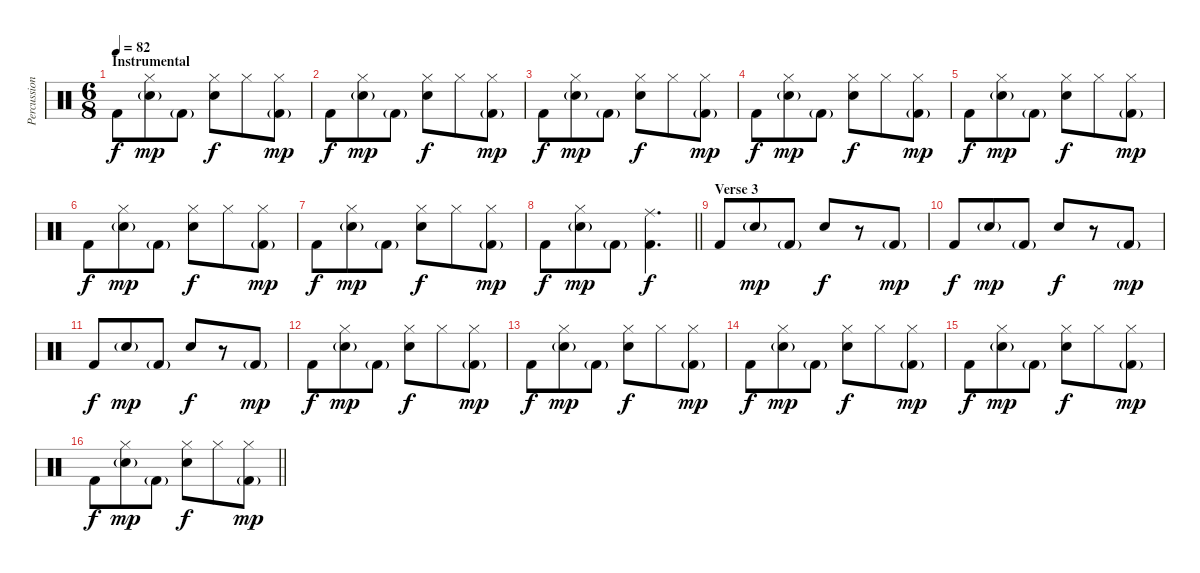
\track ("Percussion" "Percussion") {instrument percussion}
\staff {score}
\articulation defaults
\ts (6 8)
\section ("" "Instrumental")
\tempo 82
\clef neutral
\ks c "Kick (hit) 2".8{dy f}
("Hi-Hat (closed)" "Snare (hit) 2"{g}).8{dy mp} "Kick (hit) 2"{g}.8 ("Hi-Hat (closed)" "Snare (hit) 2").8{dy f} "Hi-Hat (closed)".8 ("Hi-Hat (closed)" "Kick (hit) 2"{g}).8{dy mp} |
"Kick (hit) 2".8{dy f} ("Hi-Hat (closed)" "Snare (hit) 2"{g}).8{dy mp} "Kick (hit) 2"{g}.8 ("Hi-Hat (closed)" "Snare (hit) 2").8{dy f} "Hi-Hat (closed)".8 ("Hi-Hat (closed)" "Kick (hit) 2"{g}).8{dy mp} |
"Kick (hit) 2".8{dy f} ("Hi-Hat (closed)" "Snare (hit) 2"{g}).8{dy mp} "Kick (hit) 2"{g}.8 ("Hi-Hat (closed)" "Snare (hit) 2").8{dy f} "Hi-Hat (closed)".8 ("Hi-Hat (closed)" "Kick (hit) 2"{g}).8{dy mp} |
"Kick (hit) 2".8{dy f} ("Hi-Hat (closed)" "Snare (hit) 2"{g}).8{dy mp} "Kick (hit) 2"{g}.8 ("Hi-Hat (closed)" "Snare (hit) 2").8{dy f} "Hi-Hat (closed)".8 ("Hi-Hat (closed)" "Kick (hit) 2"{g}).8{dy mp} |
"Kick (hit) 2".8{dy f} ("Hi-Hat (closed)" "Snare (hit) 2"{g}).8{dy mp} "Kick (hit) 2"{g}.8 ("Hi-Hat (closed)" "Snare (hit) 2").8{dy f} "Hi-Hat (closed)".8 ("Hi-Hat (closed)" "Kick (hit) 2"{g}).8{dy mp} |
"Kick (hit) 2".8{dy f} ("Hi-Hat (closed)" "Snare (hit) 2"{g}).8{dy mp} "Kick (hit) 2"{g}.8 ("Hi-Hat (closed)" "Snare (hit) 2").8{dy f} "Hi-Hat (closed)".8 ("Hi-Hat (closed)" "Kick (hit) 2"{g}).8{dy mp} |
"Kick (hit) 2".8{dy f} ("Hi-Hat (closed)" "Snare (hit) 2"{g}).8{dy mp} "Kick (hit) 2"{g}.8 ("Hi-Hat (closed)" "Snare (hit) 2").8{dy f} "Hi-Hat (closed)".8 ("Hi-Hat (closed)" "Kick (hit) 2"{g}).8{dy mp} |
\barLineRight lightlight "Kick (hit) 2".8{dy f}
("Hi-Hat (closed)" "Snare (hit) 2"{g}).8{dy mp} "Kick (hit) 2"{g}.8 ("Ride (middle)" "Kick (hit) 2").4{d dy f} |
\section ("" "Verse 3")
"Kick (hit) 2".8 "Snare (hit) 2"{g}.8{dy mp} "Kick (hit) 2"{g}.8 "Snare (hit) 2".8{dy f} r.8 "Kick (hit) 2"{g}.8{dy mp} |
"Kick (hit) 2".8{dy f} "Snare (hit) 2"{g}.8{dy mp} "Kick (hit) 2"{g}.8 "Snare (hit) 2".8{dy f} r.8 "Kick (hit) 2"{g}.8{dy mp} |
"Kick (hit) 2".8{dy f} "Snare (hit) 2"{g}.8{dy mp} "Kick (hit) 2"{g}.8 "Snare (hit) 2".8{dy f} r.8 "Kick (hit) 2"{g}.8{dy mp} |
"Kick (hit) 2".8{dy f} ("Hi-Hat (closed)" "Snare (hit) 2"{g}).8{dy mp} "Kick (hit) 2"{g}.8 ("Hi-Hat (closed)" "Snare (hit) 2").8{dy f} "Hi-Hat (closed)".8 ("Hi-Hat (closed)" "Kick (hit) 2"{g}).8{dy mp} |
"Kick (hit) 2".8{dy f} ("Hi-Hat (closed)" "Snare (hit) 2"{g}).8{dy mp} "Kick (hit) 2"{g}.8 ("Hi-Hat (closed)" "Snare (hit) 2").8{dy f} "Hi-Hat (closed)".8 ("Hi-Hat (closed)" "Kick (hit) 2"{g}).8{dy mp} |
"Kick (hit) 2".8{dy f} ("Hi-Hat (closed)" "Snare (hit) 2"{g}).8{dy mp} "Kick (hit) 2"{g}.8 ("Hi-Hat (closed)" "Snare (hit) 2").8{dy f} "Hi-Hat (closed)".8 ("Hi-Hat (closed)" "Kick (hit) 2"{g}).8{dy mp} |
"Kick (hit) 2".8{dy f} ("Hi-Hat (closed)" "Snare (hit) 2"{g}).8{dy mp} "Kick (hit) 2"{g}.8 ("Hi-Hat (closed)" "Snare (hit) 2").8{dy f} "Hi-Hat (closed)".8 ("Hi-Hat (closed)" "Kick (hit) 2"{g}).8{dy mp} |
\barLineRight lightlight "Kick (hit) 2".8{dy f}
("Hi-Hat (closed)" "Snare (hit) 2"{g}).8{dy mp} "Kick (hit) 2"{g}.8 ("Hi-Hat (closed)" "Snare (hit) 2").8{dy f} "Hi-Hat (closed)".8 ("Hi-Hat (closed)" "Kick (hit) 2"{g}).8{dy mp}
